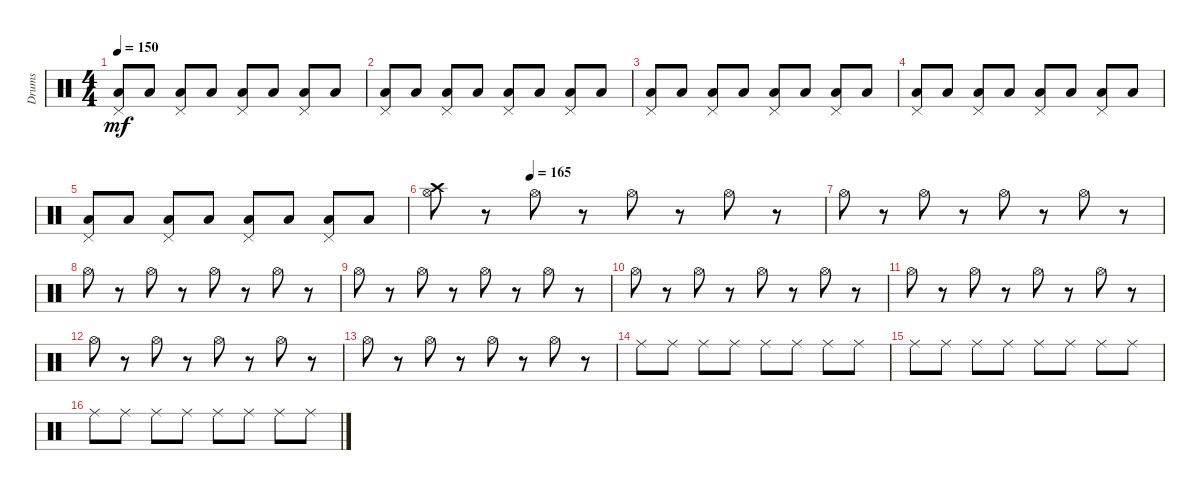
\track ("Drums" "Drums") {instrument percussion}
\staff {score}
\articulation defaults
\ts (4 4)
\tempo 150
\clef neutral
\ks c
("Low Floor Tom (hit)" "Pedal Hi-Hat (hit)").8{dy mf} "Low Floor Tom (hit)".8 ("Low Floor Tom (hit)" "Pedal Hi-Hat (hit)").8 "Low Floor Tom (hit)".8 ("Low Floor Tom (hit)" "Pedal Hi-Hat (hit)").8 "Low Floor Tom (hit)".8 ("Low Floor Tom (hit)" "Pedal Hi-Hat (hit)").8 "Low Floor Tom (hit)".8 |
("Low Floor Tom (hit)" "Pedal Hi-Hat (hit)").8 "Low Floor Tom (hit)".8 ("Low Floor Tom (hit)" "Pedal Hi-Hat (hit)").8 "Low Floor Tom (hit)".8 ("Low Floor Tom (hit)" "Pedal Hi-Hat (hit)").8 "Low Floor Tom (hit)".8 ("Low Floor Tom (hit)" "Pedal Hi-Hat (hit)").8 "Low Floor Tom (hit)".8 |
("Low Floor Tom (hit)" "Pedal Hi-Hat (hit)").8 "Low Floor Tom (hit)".8 ("Low Floor Tom (hit)" "Pedal Hi-Hat (hit)").8 "Low Floor Tom (hit)".8 ("Low Floor Tom (hit)" "Pedal Hi-Hat (hit)").8 "Low Floor Tom (hit)".8 ("Low Floor Tom (hit)" "Pedal Hi-Hat (hit)").8 "Low Floor Tom (hit)".8 |
("Pedal Hi-Hat (hit)" "Low Floor Tom (hit)").8 "Low Floor Tom (hit)".8 ("Pedal Hi-Hat (hit)" "Low Floor Tom (hit)").8 "Low Floor Tom (hit)".8 ("Pedal Hi-Hat (hit)" "Low Floor Tom (hit)").8 "Low Floor Tom (hit)".8 ("Pedal Hi-Hat (hit)" "Low Floor Tom (hit)").8 "Low Floor Tom (hit)".8 |
("Pedal Hi-Hat (hit)" "Low Floor Tom (hit)").8 "Low Floor Tom (hit)".8 ("Pedal Hi-Hat (hit)" "Low Floor Tom (hit)").8 "Low Floor Tom (hit)".8 ("Pedal Hi-Hat (hit)" "Low Floor Tom (hit)").8 "Low Floor Tom (hit)".8 ("Pedal Hi-Hat (hit)" "Low Floor Tom (hit)").8 "Low Floor Tom (hit)".8 |
\tempo (165 0.25)
("Hi-Hat (open)" "Crash high (hit)").8 r.8 "Hi-Hat (open)".8 r.8 "Hi-Hat (open)".8 r.8 "Hi-Hat (open)".8 r.8 |
"Hi-Hat (open)".8 r.8 "Hi-Hat (open)".8 r.8 "Hi-Hat (open)".8 r.8 "Hi-Hat (open)".8 r.8 |
"Hi-Hat (open)".8 r.8 "Hi-Hat (open)".8 r.8 "Hi-Hat (open)".8 r.8 "Hi-Hat (open)".8 r.8 |
"Hi-Hat (open)".8 r.8 "Hi-Hat (open)".8 r.8 "Hi-Hat (open)".8 r.8 "Hi-Hat (open)".8 r.8 |
"Hi-Hat (open)".8 r.8 "Hi-Hat (open)".8 r.8 "Hi-Hat (open)".8 r.8 "Hi-Hat (open)".8 r.8 |
"Hi-Hat (open)".8 r.8 "Hi-Hat (open)".8 r.8 "Hi-Hat (open)".8 r.8 "Hi-Hat (open)".8 r.8 |
"Hi-Hat (open)".8 r.8 "Hi-Hat (open)".8 r.8 "Hi-Hat (open)".8 r.8 "Hi-Hat (open)".8 r.8 |
"Hi-Hat (open)".8 r.8 "Hi-Hat (open)".8 r.8 "Hi-Hat (open)".8 r.8 "Hi-Hat (open)".8 r.8 |
"Ride (middle)".8 "Ride (middle)".8 "Ride (middle)".8 "Ride (middle)".8 "Ride (middle)".8 "Ride (middle)".8 "Ride (middle)".8 "Ride (middle)".8 |
"Ride (middle)".8 "Ride (middle)".8 "Ride (middle)".8 "Ride (middle)".8 "Ride (middle)".8 "Ride (middle)".8 "Ride (middle)".8 "Ride (middle)".8 |
"Ride (middle)".8 "Ride (middle)".8 "Ride (middle)".8 "Ride (middle)".8 "Ride (middle)".8 "Ride (middle)".8 "Ride (middle)".8 "Ride (middle)".8
